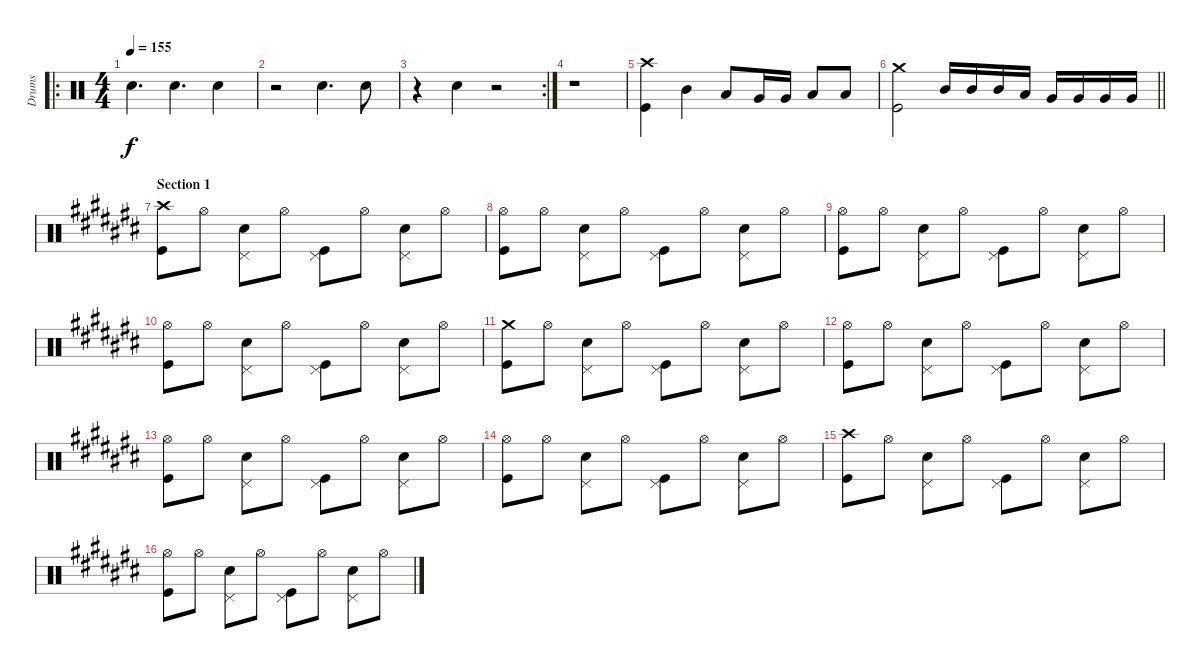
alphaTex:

\track ("Drums" "Drums") {instrument percussion}
\staff {score}
\articulation defaults
\ro
\ts (4 4)
\tempo 155
\clef neutral
\ks c "Snare (hit) 2".4{d dy f} "Snare (hit) 2".4{d} "Snare (hit) 2".4
|
r.2 "Snare (hit) 2".4{d} "Snare (hit) 2".8 |
\rc 2
r.4 "Snare (hit) 2".4 r.2 |
r.1 |
("Crash high (hit)" "Kick (hit)").4 "Mid Tom (hit)".4 "Low Tom (hit)".8 "Very Low Tom (hit)".16 "Very Low Tom (hit)".16 "Low Floor Tom (hit)".8 "Low Floor Tom (hit)".8 |
\barLineRight lightlight
("Crash medium (hit)" "Kick (hit)").2 "Mid Tom (hit)".16 "Mid Tom (hit)".16 "Mid Tom (hit)".16 "Low Tom (hit)".16 "Very Low Tom (hit)".16 "Very Low Tom (hit)".16 "Very Low Tom (hit)".16 "Very Low Tom (hit)".16 |
\section ("" "Section 1")
\ks c#
("Crash high (hit)" "Kick (hit)").8 "Hi-Hat (open)".8 ("Pedal Hi-Hat (hit)" "Snare (hit) 2").8 "Hi-Hat (open)".8 ("Pedal Hi-Hat (hit)" "Kick (hit)").8 "Hi-Hat (open)".8 ("Pedal Hi-Hat (hit)" "Snare (hit) 2").8 "Hi-Hat (open)".8 |
("Hi-Hat (open)" "Kick (hit)").8 "Hi-Hat (open)".8 ("Pedal Hi-Hat (hit)" "Snare (hit) 2").8 "Hi-Hat (open)".8 ("Pedal Hi-Hat (hit)" "Kick (hit)").8 "Hi-Hat (open)".8 ("Pedal Hi-Hat (hit)" "Snare (hit) 2").8 "Hi-Hat (open)".8 |
("Hi-Hat (open)" "Kick (hit)").8 "Hi-Hat (open)".8 ("Pedal Hi-Hat (hit)" "Snare (hit) 2").8 "Hi-Hat (open)".8 ("Pedal Hi-Hat (hit)" "Kick (hit)").8 "Hi-Hat (open)".8 ("Pedal Hi-Hat (hit)" "Snare (hit) 2").8 "Hi-Hat (open)".8 |
("Hi-Hat (open)" "Kick (hit)").8 "Hi-Hat (open)".8 ("Pedal Hi-Hat (hit)" "Snare (hit) 2").8 "Hi-Hat (open)".8 ("Pedal Hi-Hat (hit)" "Kick (hit)").8 "Hi-Hat (open)".8 ("Pedal Hi-Hat (hit)" "Snare (hit) 2").8 "Hi-Hat (open)".8 |
("Crash medium (hit)" "Kick (hit)").8 "Hi-Hat (open)".8 ("Pedal Hi-Hat (hit)" "Snare (hit) 2").8 "Hi-Hat (open)".8 ("Pedal Hi-Hat (hit)" "Kick (hit)").8 "Hi-Hat (open)".8 ("Pedal Hi-Hat (hit)" "Snare (hit) 2").8 "Hi-Hat (open)".8 |
("Hi-Hat (open)" "Kick (hit)").8 "Hi-Hat (open)".8 ("Pedal Hi-Hat (hit)" "Snare (hit) 2").8 "Hi-Hat (open)".8 ("Pedal Hi-Hat (hit)" "Kick (hit)").8 "Hi-Hat (open)".8 ("Pedal Hi-Hat (hit)" "Snare (hit) 2").8 "Hi-Hat (open)".8 |
("Hi-Hat (open)" "Kick (hit)").8 "Hi-Hat (open)".8 ("Pedal Hi-Hat (hit)" "Snare (hit) 2").8 "Hi-Hat (open)".8 ("Pedal Hi-Hat (hit)" "Kick (hit)").8 "Hi-Hat (open)".8 ("Pedal Hi-Hat (hit)" "Snare (hit) 2").8 "Hi-Hat (open)".8 |
("Hi-Hat (open)" "Kick (hit)").8 "Hi-Hat (open)".8 ("Pedal Hi-Hat (hit)" "Snare (hit) 2").8 "Hi-Hat (open)".8 ("Pedal Hi-Hat (hit)" "Kick (hit)").8 "Hi-Hat (open)".8 ("Pedal Hi-Hat (hit)" "Snare (hit) 2").8 "Hi-Hat (open)".8 |
("Crash high (hit)" "Kick (hit)").8 "Hi-Hat (open)".8 ("Pedal Hi-Hat (hit)" "Snare (hit) 2").8 "Hi-Hat (open)".8 ("Pedal Hi-Hat (hit)" "Kick (hit)").8 "Hi-Hat (open)".8 ("Pedal Hi-Hat (hit)" "Snare (hit) 2").8 "Hi-Hat (open)".8 |
("Hi-Hat (open)" "Kick (hit)").8 "Hi-Hat (open)".8 ("Pedal Hi-Hat (hit)" "Snare (hit) 2").8 "Hi-Hat (open)".8 ("Pedal Hi-Hat (hit)" "Kick (hit)").8 "Hi-Hat (open)".8 ("Pedal Hi-Hat (hit)" "Snare (hit) 2").8 "Hi-Hat (open)".8
